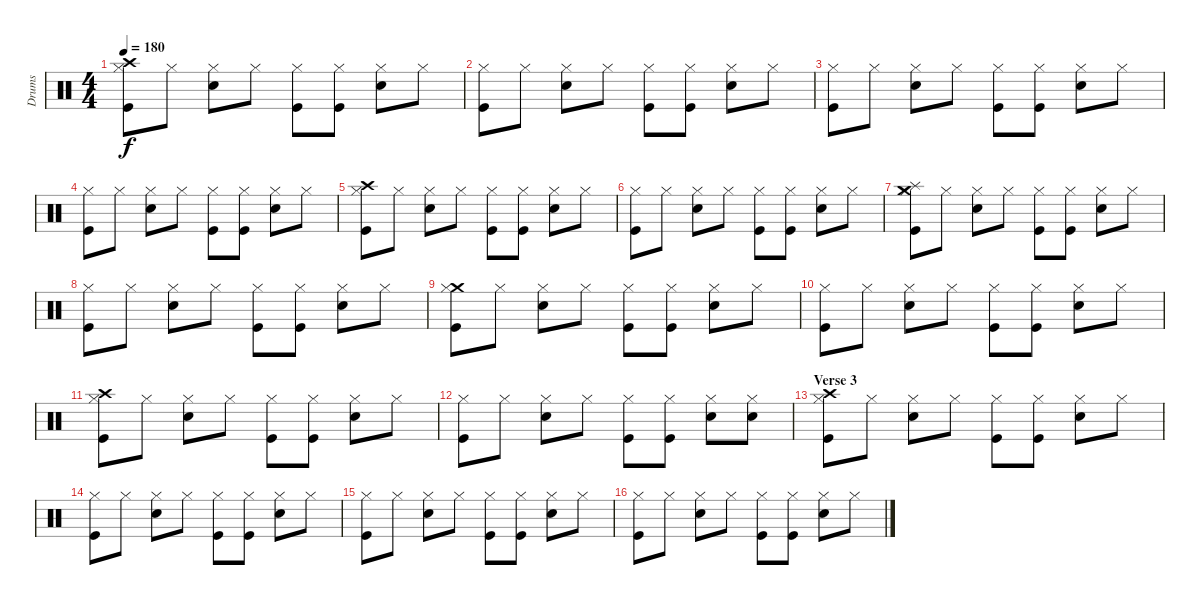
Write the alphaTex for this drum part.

\track ("Drums" "Drums") {instrument percussion}
\staff {score}
\articulation defaults
\ts (4 4)
\tempo 180
\clef neutral
\ks c
("Crash high (hit)" "Hi-Hat (closed)" "Kick (hit)").8{dy f} "Hi-Hat (closed)".8 ("Hi-Hat (closed)" "Electric Snare (hit)").8 "Hi-Hat (closed)".8 ("Kick (hit)" "Hi-Hat (closed)").8 ("Hi-Hat (closed)" "Kick (hit)").8 ("Hi-Hat (closed)" "Electric Snare (hit)").8 "Hi-Hat (closed)".8 |
("Hi-Hat (closed)" "Kick (hit)").8 "Hi-Hat (closed)".8 ("Hi-Hat (closed)" "Electric Snare (hit)").8 "Hi-Hat (closed)".8 ("Kick (hit)" "Hi-Hat (closed)").8 ("Hi-Hat (closed)" "Kick (hit)").8 ("Hi-Hat (closed)" "Electric Snare (hit)").8 "Hi-Hat (closed)".8 |
("Hi-Hat (closed)" "Kick (hit)").8 "Hi-Hat (closed)".8 ("Hi-Hat (closed)" "Electric Snare (hit)").8 "Hi-Hat (closed)".8 ("Kick (hit)" "Hi-Hat (closed)").8 ("Hi-Hat (closed)" "Kick (hit)").8 ("Hi-Hat (closed)" "Electric Snare (hit)").8 "Hi-Hat (closed)".8 |
("Hi-Hat (closed)" "Kick (hit)").8 "Hi-Hat (closed)".8 ("Hi-Hat (closed)" "Electric Snare (hit)").8 "Hi-Hat (closed)".8 ("Kick (hit)" "Hi-Hat (closed)").8 ("Hi-Hat (closed)" "Kick (hit)").8 ("Hi-Hat (closed)" "Electric Snare (hit)").8 "Hi-Hat (closed)".8 |
("Crash high (hit)" "Hi-Hat (closed)" "Kick (hit)").8 "Hi-Hat (closed)".8 ("Hi-Hat (closed)" "Electric Snare (hit)").8 "Hi-Hat (closed)".8 ("Kick (hit)" "Hi-Hat (closed)").8 ("Hi-Hat (closed)" "Kick (hit)").8 ("Hi-Hat (closed)" "Electric Snare (hit)").8 "Hi-Hat (closed)".8 |
("Hi-Hat (closed)" "Kick (hit)").8 "Hi-Hat (closed)".8 ("Hi-Hat (closed)" "Electric Snare (hit)").8 "Hi-Hat (closed)".8 ("Kick (hit)" "Hi-Hat (closed)").8 ("Hi-Hat (closed)" "Kick (hit)").8 ("Hi-Hat (closed)" "Electric Snare (hit)").8 "Hi-Hat (closed)".8 |
("Crash medium (hit)" "Splash (hit)" "Hi-Hat (closed)" "Kick (hit)").8 "Hi-Hat (closed)".8 ("Hi-Hat (closed)" "Electric Snare (hit)").8 "Hi-Hat (closed)".8 ("Kick (hit)" "Hi-Hat (closed)").8 ("Hi-Hat (closed)" "Kick (hit)").8 ("Hi-Hat (closed)" "Electric Snare (hit)").8 "Hi-Hat (closed)".8 |
("Hi-Hat (closed)" "Kick (hit)").8 "Hi-Hat (closed)".8 ("Hi-Hat (closed)" "Electric Snare (hit)").8 "Hi-Hat (closed)".8 ("Kick (hit)" "Hi-Hat (closed)").8 ("Hi-Hat (closed)" "Kick (hit)").8 ("Hi-Hat (closed)" "Electric Snare (hit)").8 "Hi-Hat (closed)".8 |
("Crash medium (hit)" "Hi-Hat (closed)" "Kick (hit)").8 "Hi-Hat (closed)".8 ("Hi-Hat (closed)" "Electric Snare (hit)").8 "Hi-Hat (closed)".8 ("Kick (hit)" "Hi-Hat (closed)").8 ("Hi-Hat (closed)" "Kick (hit)").8 ("Hi-Hat (closed)" "Electric Snare (hit)").8 "Hi-Hat (closed)".8 |
("Hi-Hat (closed)" "Kick (hit)").8 "Hi-Hat (closed)".8 ("Hi-Hat (closed)" "Electric Snare (hit)").8 "Hi-Hat (closed)".8 ("Kick (hit)" "Hi-Hat (closed)").8 ("Hi-Hat (closed)" "Kick (hit)").8 ("Hi-Hat (closed)" "Electric Snare (hit)").8 "Hi-Hat (closed)".8 |
("Crash high (hit)" "Hi-Hat (closed)" "Kick (hit)").8 "Hi-Hat (closed)".8 ("Hi-Hat (closed)" "Electric Snare (hit)").8 "Hi-Hat (closed)".8 ("Kick (hit)" "Hi-Hat (closed)").8 ("Hi-Hat (closed)" "Kick (hit)").8 ("Hi-Hat (closed)" "Electric Snare (hit)").8 "Hi-Hat (closed)".8 |
("Hi-Hat (closed)" "Kick (hit)").8 "Hi-Hat (closed)".8 ("Hi-Hat (closed)" "Electric Snare (hit)").8 "Hi-Hat (closed)".8 ("Kick (hit)" "Hi-Hat (closed)").8 ("Hi-Hat (closed)" "Kick (hit)").8 ("Hi-Hat (closed)" "Electric Snare (hit)").8 ("Electric Snare (hit)" "Hi-Hat (closed)").8 |
\section ("" "Verse 3")
("Crash high (hit)" "Hi-Hat (closed)" "Kick (hit)").8 "Hi-Hat (closed)".8 ("Hi-Hat (closed)" "Electric Snare (hit)").8 "Hi-Hat (closed)".8 ("Kick (hit)" "Hi-Hat (closed)").8 ("Hi-Hat (closed)" "Kick (hit)").8 ("Hi-Hat (closed)" "Electric Snare (hit)").8 "Hi-Hat (closed)".8 |
("Hi-Hat (closed)" "Kick (hit)").8 "Hi-Hat (closed)".8 ("Hi-Hat (closed)" "Electric Snare (hit)").8 "Hi-Hat (closed)".8 ("Kick (hit)" "Hi-Hat (closed)").8 ("Hi-Hat (closed)" "Kick (hit)").8 ("Hi-Hat (closed)" "Electric Snare (hit)").8 "Hi-Hat (closed)".8 |
("Hi-Hat (closed)" "Kick (hit)").8 "Hi-Hat (closed)".8 ("Hi-Hat (closed)" "Electric Snare (hit)").8 "Hi-Hat (closed)".8 ("Kick (hit)" "Hi-Hat (closed)").8 ("Hi-Hat (closed)" "Kick (hit)").8 ("Hi-Hat (closed)" "Electric Snare (hit)").8 "Hi-Hat (closed)".8 |
("Hi-Hat (closed)" "Kick (hit)").8 "Hi-Hat (closed)".8 ("Hi-Hat (closed)" "Electric Snare (hit)").8 "Hi-Hat (closed)".8 ("Kick (hit)" "Hi-Hat (closed)").8 ("Hi-Hat (closed)" "Kick (hit)").8 ("Hi-Hat (closed)" "Electric Snare (hit)").8 "Hi-Hat (closed)".8
